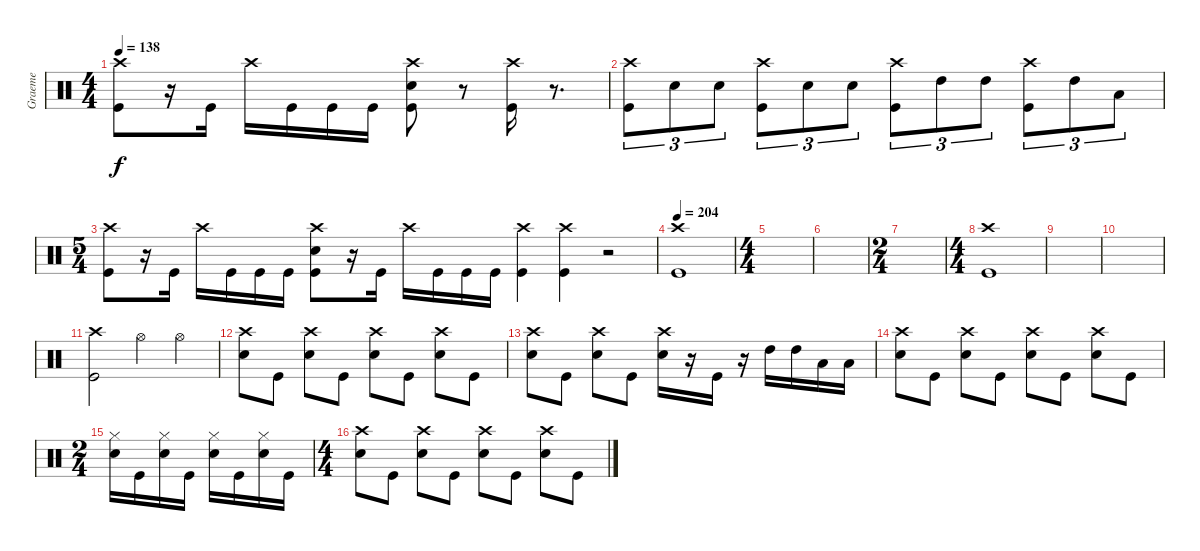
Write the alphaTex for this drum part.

\track ("Graeme" "Graeme") {instrument percussion}
\staff {score}
\articulation defaults
\ts (4 4)
\tempo 138
\clef neutral
\ks c
("Crash high (hit)" "Kick (hit)").8{dy f} r.16 "Kick (hit)".16 "Crash high (hit)".16 "Kick (hit)".16 "Kick (hit)".16 "Kick (hit)".16 ("Crash high (hit)" "Snare (hit) 2" "Kick (hit)").8 r.8 ("Crash high (hit)" "Kick (hit)").16 r.8{d} |
("Crash high (hit)" "Kick (hit)").8{tu (3 2)} "Snare (hit) 2".8{tu (3 2)} "Snare (hit) 2".8{tu (3 2)} ("Crash high (hit)" "Kick (hit)").8{tu (3 2)} "Snare (hit) 2".8{tu (3 2)} "Snare (hit) 2".8{tu (3 2)} ("Crash high (hit)" "Kick (hit)").8{tu (3 2)} "High Tom (hit)".8{tu (3 2)} "High Tom (hit)".8{tu (3 2)} ("Crash high (hit)" "Kick (hit)").8{tu (3 2)} "High Tom (hit)".8{tu (3 2)} "Low Floor Tom (hit)".8{tu (3 2)} |
\ts (5 4)
("Crash high (hit)" "Kick (hit)").8 r.16 "Kick (hit)".16 "Crash high (hit)".16 "Kick (hit)".16 "Kick (hit)".16 "Kick (hit)".16 ("Crash high (hit)" "Snare (hit) 2" "Kick (hit)").8 r.16 "Kick (hit)".16 "Crash high (hit)".16 "Kick (hit)".16 "Kick (hit)".16 "Kick (hit)".16 ("Crash high (hit)" "Kick (hit)").4 ("Crash high (hit)" "Kick (hit)").4 r.2 |
\tempo 204
("Crash high (hit)" "Kick (hit)").1 |
\ts (4 4)
|
|
\ts (2 4)
|
\ts (4 4)
("Crash high (hit)" "Kick (hit)").1 |
|
|
("Crash high (hit)" "Kick (hit)").2 "Hi-Hat (open)".4 "Hi-Hat (open)".4 |
("Crash high (hit)" "Snare (hit) 2").8 "Kick (hit)".8 ("Crash high (hit)" "Snare (hit) 2").8 "Kick (hit)".8 ("Crash high (hit)" "Snare (hit) 2").8 "Kick (hit)".8 ("Crash high (hit)" "Snare (hit) 2").8 "Kick (hit)".8 |
("Crash high (hit)" "Snare (hit) 2").8 "Kick (hit)".8 ("Crash high (hit)" "Snare (hit) 2").8 "Kick (hit)".8 ("Crash high (hit)" "Snare (hit) 2").16 r.16 "Kick (hit)".16 r.16 "High Tom (hit)".16 "High Tom (hit)".16 "Low Floor Tom (hit)".16 "Low Floor Tom (hit)".16 |
("Crash high (hit)" "Snare (hit) 2").8 "Kick (hit)".8 ("Crash high (hit)" "Snare (hit) 2").8 "Kick (hit)".8 ("Crash high (hit)" "Snare (hit) 2").8 "Kick (hit)".8 ("Crash high (hit)" "Snare (hit) 2").8 "Kick (hit)".8 |
\ts (2 4)
("Hi-Hat (closed)" "Snare (hit) 2").16 "Kick (hit)".16 ("Hi-Hat (closed)" "Snare (hit) 2").16 "Kick (hit)".16 ("Hi-Hat (closed)" "Snare (hit) 2").16 "Kick (hit)".16 ("Hi-Hat (closed)" "Snare (hit) 2").16 "Kick (hit)".16 |
\ts (4 4)
("Crash high (hit)" "Snare (hit) 2").8 "Kick (hit)".8 ("Crash high (hit)" "Snare (hit) 2").8 "Kick (hit)".8 ("Crash high (hit)" "Snare (hit) 2").8 "Kick (hit)".8 ("Crash high (hit)" "Snare (hit) 2").8 "Kick (hit)".8
